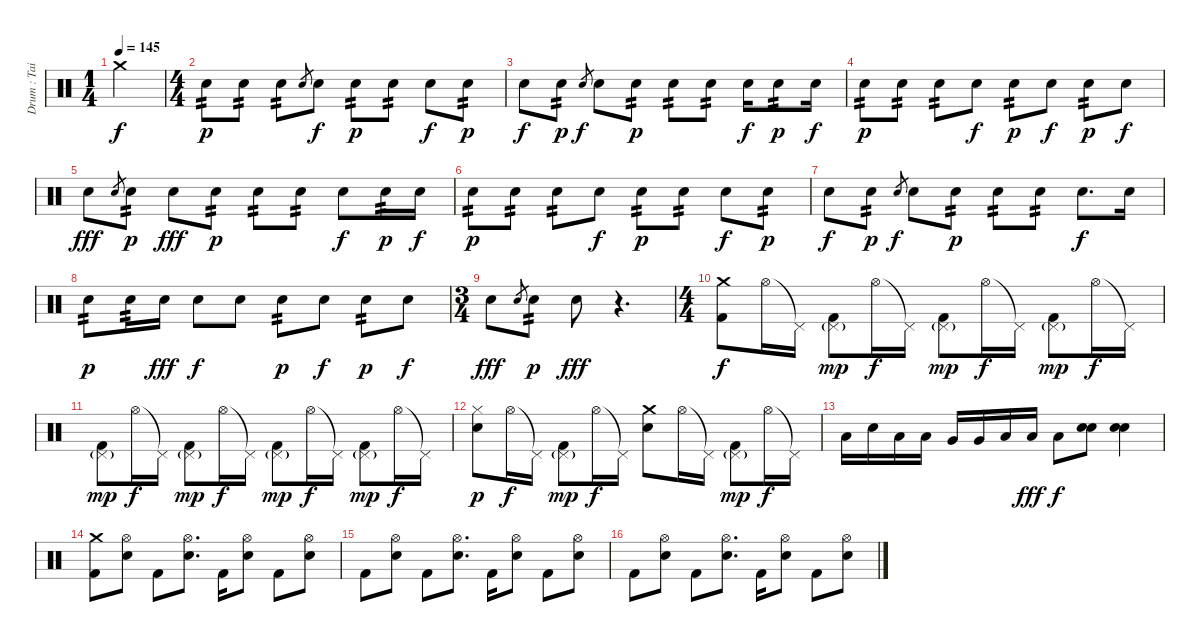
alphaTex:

\track ("Drum : Tainaka Ritsu" "Drum : Tai") {instrument percussion}
\staff {score}
\articulation defaults
\ts (1 4)
\tempo 145
\clef neutral
\ks c "Crash medium (hit)".4{dy f}
|
\ts (4 4)
"Electric Snare (hit)".8{tp 2 dy p} "Electric Snare (hit)".8{tp 2} "Electric Snare (hit)".8{tp 2} "Electric Snare (hit)".8{gr} "Electric Snare (hit)".8{dy f} "Electric Snare (hit)".8{tp 2 dy p} "Electric Snare (hit)".8{tp 2} "Electric Snare (hit)".8{dy f} "Electric Snare (hit)".8{tp 2 dy p} |
"Electric Snare (hit)".8{dy f} "Electric Snare (hit)".8{tp 2 dy p} "Electric Snare (hit)".8{gr dy f} "Electric Snare (hit)".8 "Electric Snare (hit)".8{tp 2 dy p} "Electric Snare (hit)".8{tp 2} "Electric Snare (hit)".8{tp 2} "Electric Snare (hit)".16{dy f} "Electric Snare (hit)".8{tp 2 dy p} "Electric Snare (hit)".16{dy f} |
"Electric Snare (hit)".8{tp 2 dy p} "Electric Snare (hit)".8{tp 2} "Electric Snare (hit)".8{tp 2} "Electric Snare (hit)".8{dy f} "Electric Snare (hit)".8{tp 2 dy p} "Electric Snare (hit)".8{dy f} "Electric Snare (hit)".8{tp 2 dy p} "Electric Snare (hit)".8{dy f} |
"Electric Snare (hit)".8{dy fff} "Electric Snare (hit)".8{gr} "Electric Snare (hit)".8{tp 2 dy p} "Electric Snare (hit)".8{dy fff} "Electric Snare (hit)".8{tp 2 dy p} "Electric Snare (hit)".8{tp 2} "Electric Snare (hit)".8{tp 2} "Electric Snare (hit)".8{dy f} "Electric Snare (hit)".16{tp 2 dy p} "Electric Snare (hit)".16{dy f} |
"Electric Snare (hit)".8{tp 2 dy p} "Electric Snare (hit)".8{tp 2} "Electric Snare (hit)".8{tp 2} "Electric Snare (hit)".8{dy f} "Electric Snare (hit)".8{tp 2 dy p} "Electric Snare (hit)".8{tp 2} "Electric Snare (hit)".8{dy f} "Electric Snare (hit)".8{tp 2 dy p} |
"Electric Snare (hit)".8{dy f} "Electric Snare (hit)".8{tp 2 dy p} "Electric Snare (hit)".8{gr dy f} "Electric Snare (hit)".8 "Electric Snare (hit)".8{tp 2 dy p} "Electric Snare (hit)".8{tp 2} "Electric Snare (hit)".8{tp 2} "Electric Snare (hit)".8{d dy f} "Electric Snare (hit)".16 |
"Electric Snare (hit)".8{tp 2 dy p} "Electric Snare (hit)".16{tp 2} "Electric Snare (hit)".16{dy fff} "Electric Snare (hit)".8{dy f} "Electric Snare (hit)".8 "Electric Snare (hit)".8{tp 2 dy p} "Electric Snare (hit)".8{dy f} "Electric Snare (hit)".8{tp 2 dy p} "Electric Snare (hit)".8{dy f} |
\ts (3 4)
"Electric Snare (hit)".8{dy fff} "Electric Snare (hit)".8{gr} "Electric Snare (hit)".8{tp 2 dy p} "Electric Snare (hit)".8{dy fff} r.4{d} |
\ts (4 4)
("Crash medium (hit)" "Kick (hit) 2").8{dy f} "Hi-Hat (open)".16 "Pedal Hi-Hat (hit)"{t}.16 ("Pedal Hi-Hat (hit)"{g} "Kick (hit) 2").8{dy mp} "Hi-Hat (open)".16{dy f} "Pedal Hi-Hat (hit)"{t}.16 ("Pedal Hi-Hat (hit)"{g} "Kick (hit) 2").8{dy mp} "Hi-Hat (open)".16{dy f} "Pedal Hi-Hat (hit)"{t}.16 ("Pedal Hi-Hat (hit)"{g} "Kick (hit) 2").8{dy mp} "Hi-Hat (open)".16{dy f} "Pedal Hi-Hat (hit)"{t}.16 |
("Pedal Hi-Hat (hit)"{g} "Kick (hit) 2").8{dy mp} "Hi-Hat (open)".16{dy f} "Pedal Hi-Hat (hit)"{t}.16 ("Pedal Hi-Hat (hit)"{g} "Kick (hit) 2").8{dy mp} "Hi-Hat (open)".16{dy f} "Pedal Hi-Hat (hit)"{t}.16 ("Pedal Hi-Hat (hit)"{g} "Kick (hit) 2").8{dy mp} "Hi-Hat (open)".16{dy f} "Pedal Hi-Hat (hit)"{t}.16 ("Pedal Hi-Hat (hit)"{g} "Kick (hit) 2").8{dy mp} "Hi-Hat (open)".16{dy f} "Pedal Hi-Hat (hit)"{t}.16 |
("Hi-Hat (closed)" "Electric Snare (hit)").8{dy p} "Hi-Hat (open)".16{dy f} "Pedal Hi-Hat (hit)"{t}.16 ("Pedal Hi-Hat (hit)"{g} "Kick (hit) 2").8{dy mp} "Hi-Hat (open)".16{dy f} "Pedal Hi-Hat (hit)"{t}.16 ("Crash medium (hit)" "Electric Snare (hit)").8 "Hi-Hat (open)".16 "Pedal Hi-Hat (hit)"{t}.16 ("Pedal Hi-Hat (hit)"{g} "Kick (hit) 2").8{dy mp} "Hi-Hat (open)".16{dy f} "Pedal Hi-Hat (hit)"{t}.16 |
"Low Tom (hit)".16 "Electric Snare (hit)".16 "Low Tom (hit)".16 "Low Tom (hit)".16 "Very Low Tom (hit)".16 "Very Low Tom (hit)".16 "Low Floor Tom (hit)".16 "Low Floor Tom (hit)".16{dy fff} "Low Floor Tom (hit)".8{dy f} ("Electric Snare (hit)" "Electric Snare (hit)").8 ("Electric Snare (hit)" "Electric Snare (hit)").4 |
("Crash medium (hit)" "Kick (hit) 2").8 ("Hi-Hat (open)" "Electric Snare (hit)").8 "Kick (hit) 2".8 ("Hi-Hat (open)" "Electric Snare (hit)").8{d} "Kick (hit) 2".16 ("Hi-Hat (open)" "Electric Snare (hit)").8 "Kick (hit) 2".8 ("Hi-Hat (open)" "Electric Snare (hit)").8 |
"Kick (hit) 2".8 ("Hi-Hat (open)" "Electric Snare (hit)").8 "Kick (hit) 2".8 ("Hi-Hat (open)" "Electric Snare (hit)").8{d} "Kick (hit) 2".16 ("Hi-Hat (open)" "Electric Snare (hit)").8 "Kick (hit) 2".8 ("Hi-Hat (open)" "Electric Snare (hit)").8 |
"Kick (hit) 2".8 ("Hi-Hat (open)" "Electric Snare (hit)").8 "Kick (hit) 2".8 ("Hi-Hat (open)" "Electric Snare (hit)").8{d} "Kick (hit) 2".16 ("Hi-Hat (open)" "Electric Snare (hit)").8 "Kick (hit) 2".8 ("Hi-Hat (open)" "Electric Snare (hit)").8
